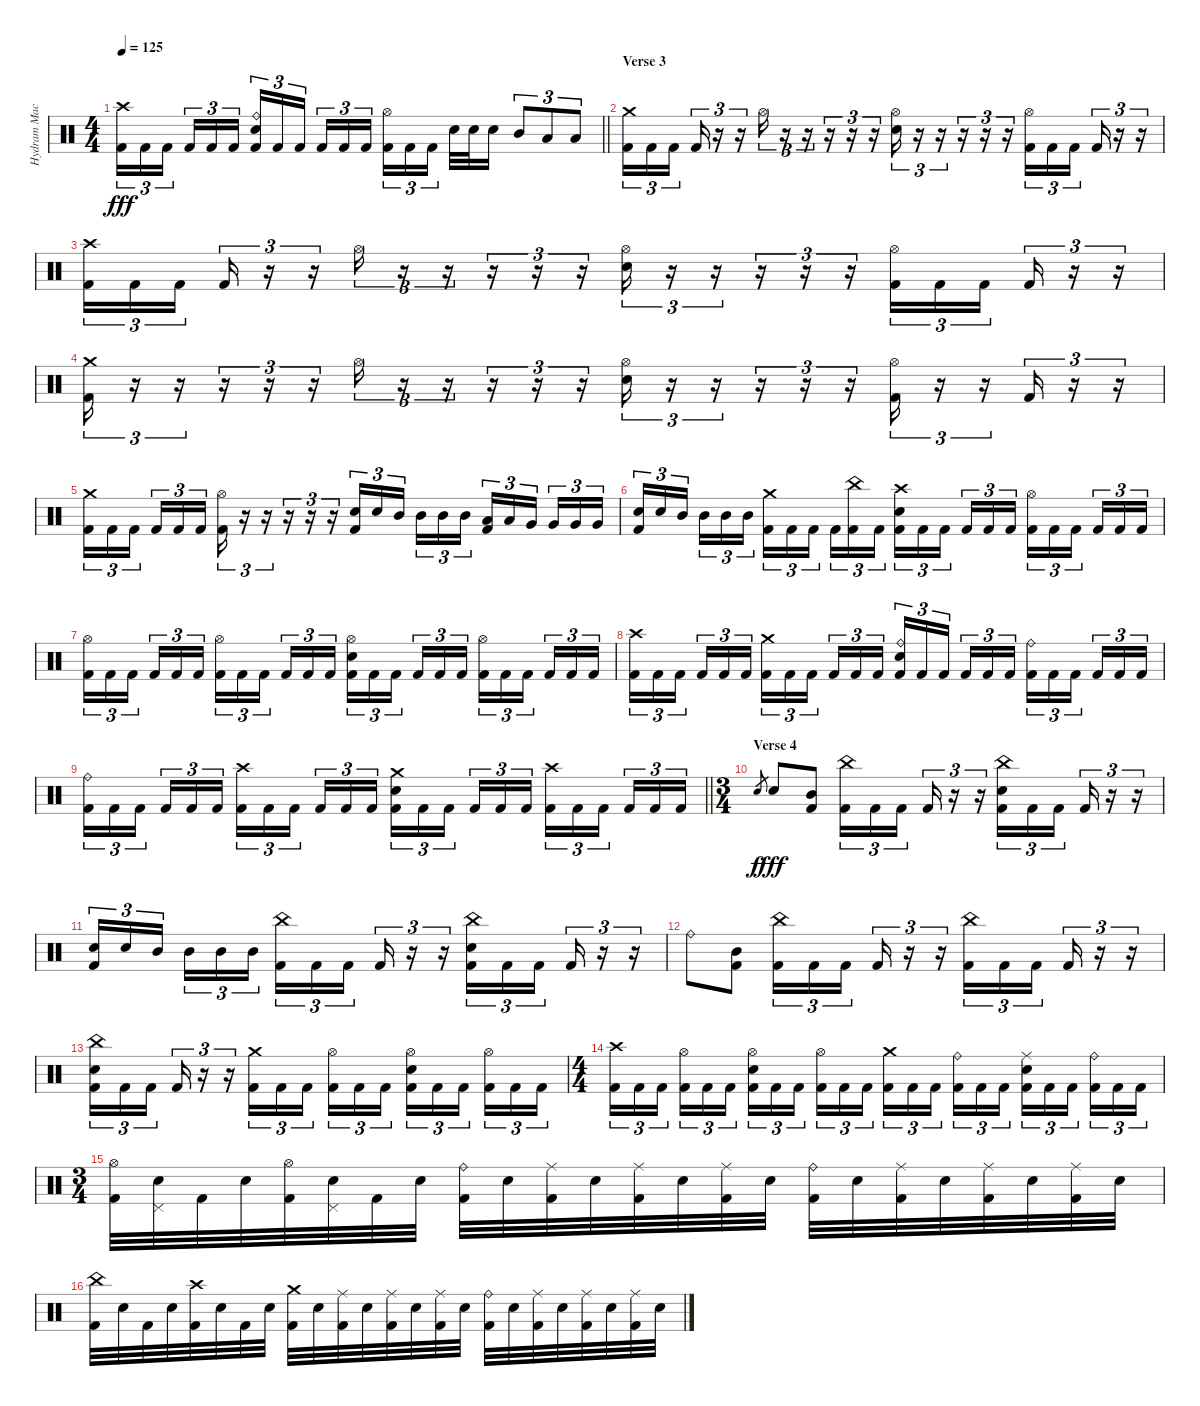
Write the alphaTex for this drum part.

\track ("Hydram Machine" "Hydram Mac") {instrument percussion}
\staff {score}
\articulation defaults
\ts (4 4)
\tempo 125
\clef neutral
\barLineRight lightlight
\ks c
("Crash high (hit)" "Kick (hit) 2").16{tu (3 2) dy fff} "Kick (hit) 2".16{tu (3 2)} "Kick (hit) 2".16{tu (3 2) beam splitsecondary} "Kick (hit) 2".16{tu (3 2)} "Kick (hit) 2".16{tu (3 2)} "Kick (hit) 2".16{tu (3 2)} ("Ride (bell)" "Electric Snare (hit)" "Kick (hit) 2").16{tu (3 2)} "Kick (hit) 2".16{tu (3 2)} "Kick (hit) 2".16{tu (3 2) beam splitsecondary} "Kick (hit) 2".16{tu (3 2)} "Kick (hit) 2".16{tu (3 2)} "Kick (hit) 2".16{tu (3 2)} ("Hi-Hat (open)" "Kick (hit) 2").16{tu (3 2)} "Kick (hit) 2".16{tu (3 2)} "Kick (hit) 2".16{tu (3 2) beam splitsecondary} "Electric Snare (hit)".32 "Electric Snare (hit)".32 "Electric Snare (hit)".16 "Mid Tom (hit)".8{tu (3 2)} "Low Tom (hit)".8{tu (3 2)} "Low Tom (hit)".8{tu (3 2)} |
\section ("" "Verse 3")
("Crash medium (hit)" "Kick (hit) 2").16{tu (3 2)} "Kick (hit) 2".16{tu (3 2)} "Kick (hit) 2".16{tu (3 2) beam splitsecondary} "Kick (hit) 2".16{tu (3 2)} r.16{tu (3 2)} r.16{tu (3 2)} "Hi-Hat (open)".16{tu (3 2)} r.16{tu (3 2)} r.16{tu (3 2)} r.16{tu (3 2)} r.16{tu (3 2)} r.16{tu (3 2)} ("Hi-Hat (open)" "Electric Snare (hit)").16{tu (3 2)} r.16{tu (3 2)} r.16{tu (3 2)} r.16{tu (3 2)} r.16{tu (3 2)} r.16{tu (3 2)} ("Hi-Hat (open)" "Kick (hit) 2").16{tu (3 2)} "Kick (hit) 2".16{tu (3 2)} "Kick (hit) 2".16{tu (3 2) beam splitsecondary} "Kick (hit) 2".16{tu (3 2)} r.16{tu (3 2)} r.16{tu (3 2)} |
("Crash high (hit)" "Kick (hit) 2").16{tu (3 2)} "Kick (hit) 2".16{tu (3 2)} "Kick (hit) 2".16{tu (3 2) beam splitsecondary} "Kick (hit) 2".16{tu (3 2)} r.16{tu (3 2)} r.16{tu (3 2)} "Hi-Hat (open)".16{tu (3 2)} r.16{tu (3 2)} r.16{tu (3 2)} r.16{tu (3 2)} r.16{tu (3 2)} r.16{tu (3 2)} ("Hi-Hat (open)" "Electric Snare (hit)").16{tu (3 2)} r.16{tu (3 2)} r.16{tu (3 2)} r.16{tu (3 2)} r.16{tu (3 2)} r.16{tu (3 2)} ("Hi-Hat (open)" "Kick (hit) 2").16{tu (3 2)} "Kick (hit) 2".16{tu (3 2)} "Kick (hit) 2".16{tu (3 2) beam splitsecondary} "Kick (hit) 2".16{tu (3 2)} r.16{tu (3 2)} r.16{tu (3 2)} |
("Crash medium (hit)" "Kick (hit) 2").16{tu (3 2)} r.16{tu (3 2)} r.16{tu (3 2)} r.16{tu (3 2)} r.16{tu (3 2)} r.16{tu (3 2)} "Hi-Hat (open)".16{tu (3 2)} r.16{tu (3 2)} r.16{tu (3 2)} r.16{tu (3 2)} r.16{tu (3 2)} r.16{tu (3 2)} ("Hi-Hat (open)" "Electric Snare (hit)").16{tu (3 2)} r.16{tu (3 2)} r.16{tu (3 2)} r.16{tu (3 2)} r.16{tu (3 2)} r.16{tu (3 2)} ("Hi-Hat (open)" "Kick (hit) 2").16{tu (3 2)} r.16{tu (3 2)} r.16{tu (3 2)} "Kick (hit) 2".16{tu (3 2)} r.16{tu (3 2)} r.16{tu (3 2)} |
("Crash medium (hit)" "Kick (hit) 2").16{tu (3 2)} "Kick (hit) 2".16{tu (3 2)} "Kick (hit) 2".16{tu (3 2) beam splitsecondary} "Kick (hit) 2".16{tu (3 2)} "Kick (hit) 2".16{tu (3 2)} "Kick (hit) 2".16{tu (3 2)} ("Hi-Hat (open)" "Kick (hit) 2").16{tu (3 2)} r.16{tu (3 2)} r.16{tu (3 2)} r.16{tu (3 2)} r.16{tu (3 2)} r.16{tu (3 2)} ("Electric Snare (hit)" "Kick (hit) 2").16{tu (3 2)} "Electric Snare (hit)".16{tu (3 2)} "Mid Tom (hit)".16{tu (3 2) beam splitsecondary} "Mid Tom (hit)".16{tu (3 2)} "Mid Tom (hit)".16{tu (3 2)} "Mid Tom (hit)".16{tu (3 2)} ("Low Tom (hit)" "Kick (hit) 2").16{tu (3 2)} "Low Tom (hit)".16{tu (3 2)} "Very Low Tom (hit)".16{tu (3 2) beam splitsecondary} "Very Low Tom (hit)".16{tu (3 2)} "Very Low Tom (hit)".16{tu (3 2)} "Very Low Tom (hit)".16{tu (3 2)} |
("Electric Snare (hit)" "Kick (hit) 2").16{tu (3 2)} "Electric Snare (hit)".16{tu (3 2)} "Mid Tom (hit)".16{tu (3 2) beam splitsecondary} "Mid Tom (hit)".16{tu (3 2)} "Mid Tom (hit)".16{tu (3 2)} "Mid Tom (hit)".16{tu (3 2)} ("Crash medium (hit)" "Kick (hit) 2").16{tu (3 2)} "Kick (hit) 2".16{tu (3 2)} "Kick (hit) 2".16{tu (3 2) beam splitsecondary} "Kick (hit) 2".16{tu (3 2)} ("China (hit)" "Kick (hit) 2").16{tu (3 2)} "Kick (hit) 2".16{tu (3 2)} ("Crash high (hit)" "Electric Snare (hit)" "Kick (hit) 2").16{tu (3 2)} "Kick (hit) 2".16{tu (3 2)} "Kick (hit) 2".16{tu (3 2) beam splitsecondary} "Kick (hit) 2".16{tu (3 2)} "Kick (hit) 2".16{tu (3 2)} "Kick (hit) 2".16{tu (3 2)} ("Hi-Hat (open)" "Kick (hit) 2").16{tu (3 2)} "Kick (hit) 2".16{tu (3 2)} "Kick (hit) 2".16{tu (3 2) beam splitsecondary} "Kick (hit) 2".16{tu (3 2)} "Kick (hit) 2".16{tu (3 2)} "Kick (hit) 2".16{tu (3 2)} |
("Hi-Hat (open)" "Kick (hit) 2").16{tu (3 2)} "Kick (hit) 2".16{tu (3 2)} "Kick (hit) 2".16{tu (3 2) beam splitsecondary} "Kick (hit) 2".16{tu (3 2)} "Kick (hit) 2".16{tu (3 2)} "Kick (hit) 2".16{tu (3 2)} ("Hi-Hat (open)" "Kick (hit) 2").16{tu (3 2)} "Kick (hit) 2".16{tu (3 2)} "Kick (hit) 2".16{tu (3 2) beam splitsecondary} "Kick (hit) 2".16{tu (3 2)} "Kick (hit) 2".16{tu (3 2)} "Kick (hit) 2".16{tu (3 2)} ("Hi-Hat (open)" "Electric Snare (hit)" "Kick (hit) 2").16{tu (3 2)} "Kick (hit) 2".16{tu (3 2)} "Kick (hit) 2".16{tu (3 2) beam splitsecondary} "Kick (hit) 2".16{tu (3 2)} "Kick (hit) 2".16{tu (3 2)} "Kick (hit) 2".16{tu (3 2)} ("Hi-Hat (open)" "Kick (hit) 2").16{tu (3 2)} "Kick (hit) 2".16{tu (3 2)} "Kick (hit) 2".16{tu (3 2) beam splitsecondary} "Kick (hit) 2".16{tu (3 2)} "Kick (hit) 2".16{tu (3 2)} "Kick (hit) 2".16{tu (3 2)} |
("Crash high (hit)" "Kick (hit) 2").16{tu (3 2)} "Kick (hit) 2".16{tu (3 2)} "Kick (hit) 2".16{tu (3 2) beam splitsecondary} "Kick (hit) 2".16{tu (3 2)} "Kick (hit) 2".16{tu (3 2)} "Kick (hit) 2".16{tu (3 2)} ("Crash medium (hit)" "Kick (hit) 2").16{tu (3 2)} "Kick (hit) 2".16{tu (3 2)} "Kick (hit) 2".16{tu (3 2) beam splitsecondary} "Kick (hit) 2".16{tu (3 2)} "Kick (hit) 2".16{tu (3 2)} "Kick (hit) 2".16{tu (3 2)} ("Ride (bell)" "Electric Snare (hit)" "Kick (hit) 2").16{tu (3 2)} "Kick (hit) 2".16{tu (3 2)} "Kick (hit) 2".16{tu (3 2) beam splitsecondary} "Kick (hit) 2".16{tu (3 2)} "Kick (hit) 2".16{tu (3 2)} "Kick (hit) 2".16{tu (3 2)} ("Ride (bell)" "Kick (hit) 2").16{tu (3 2)} "Kick (hit) 2".16{tu (3 2)} "Kick (hit) 2".16{tu (3 2) beam splitsecondary} "Kick (hit) 2".16{tu (3 2)} "Kick (hit) 2".16{tu (3 2)} "Kick (hit) 2".16{tu (3 2)} |
\barLineRight lightlight
("Ride (bell)" "Kick (hit) 2").16{tu (3 2)} "Kick (hit) 2".16{tu (3 2)} "Kick (hit) 2".16{tu (3 2) beam splitsecondary} "Kick (hit) 2".16{tu (3 2)} "Kick (hit) 2".16{tu (3 2)} "Kick (hit) 2".16{tu (3 2)} ("Crash high (hit)" "Kick (hit) 2").16{tu (3 2)} "Kick (hit) 2".16{tu (3 2)} "Kick (hit) 2".16{tu (3 2) beam splitsecondary} "Kick (hit) 2".16{tu (3 2)} "Kick (hit) 2".16{tu (3 2)} "Kick (hit) 2".16{tu (3 2)} ("Crash medium (hit)" "Electric Snare (hit)" "Kick (hit) 2").16{tu (3 2)} "Kick (hit) 2".16{tu (3 2)} "Kick (hit) 2".16{tu (3 2) beam splitsecondary} "Kick (hit) 2".16{tu (3 2)} "Kick (hit) 2".16{tu (3 2)} "Kick (hit) 2".16{tu (3 2)} ("Crash high (hit)" "Kick (hit) 2").16{tu (3 2)} "Kick (hit) 2".16{tu (3 2)} "Kick (hit) 2".16{tu (3 2) beam splitsecondary} "Kick (hit) 2".16{tu (3 2)} "Kick (hit) 2".16{tu (3 2)} "Kick (hit) 2".16{tu (3 2)} |
\ts (3 4)
\section ("" "Verse 4")
"Electric Snare (hit)".8{gr dy f} "Electric Snare (hit)".8{dy fff} ("Mid Tom (hit)" "Kick (hit) 2").8 ("China (hit)" "Kick (hit) 2").16{tu (3 2)} "Kick (hit) 2".16{tu (3 2)} "Kick (hit) 2".16{tu (3 2) beam splitsecondary} "Kick (hit) 2".16{tu (3 2)} r.16{tu (3 2)} r.16{tu (3 2)} ("China (hit)" "Electric Snare (hit)" "Kick (hit) 2").16{tu (3 2)} "Kick (hit) 2".16{tu (3 2)} "Kick (hit) 2".16{tu (3 2) beam splitsecondary} "Kick (hit) 2".16{tu (3 2)} r.16{tu (3 2)} r.16{tu (3 2)} |
("Electric Snare (hit)" "Kick (hit) 2").16{tu (3 2)} "Electric Snare (hit)".16{tu (3 2)} "Mid Tom (hit)".16{tu (3 2) beam splitsecondary} "Mid Tom (hit)".16{tu (3 2)} "Mid Tom (hit)".16{tu (3 2)} "Mid Tom (hit)".16{tu (3 2)} ("China (hit)" "Kick (hit) 2").16{tu (3 2)} "Kick (hit) 2".16{tu (3 2)} "Kick (hit) 2".16{tu (3 2) beam splitsecondary} "Kick (hit) 2".16{tu (3 2)} r.16{tu (3 2)} r.16{tu (3 2)} ("China (hit)" "Electric Snare (hit)" "Kick (hit) 2").16{tu (3 2)} "Kick (hit) 2".16{tu (3 2)} "Kick (hit) 2".16{tu (3 2) beam splitsecondary} "Kick (hit) 2".16{tu (3 2)} r.16{tu (3 2)} r.16{tu (3 2)} |
"Ride (bell)".8 ("Mid Tom (hit)" "Kick (hit) 2").8 ("China (hit)" "Kick (hit) 2").16{tu (3 2)} "Kick (hit) 2".16{tu (3 2)} "Kick (hit) 2".16{tu (3 2) beam splitsecondary} "Kick (hit) 2".16{tu (3 2)} r.16{tu (3 2)} r.16{tu (3 2)} ("China (hit)" "Kick (hit) 2").16{tu (3 2)} "Kick (hit) 2".16{tu (3 2)} "Kick (hit) 2".16{tu (3 2) beam splitsecondary} "Kick (hit) 2".16{tu (3 2)} r.16{tu (3 2)} r.16{tu (3 2)} |
("China (hit)" "Electric Snare (hit)" "Kick (hit) 2").16{tu (3 2)} "Kick (hit) 2".16{tu (3 2)} "Kick (hit) 2".16{tu (3 2) beam splitsecondary} "Kick (hit) 2".16{tu (3 2)} r.16{tu (3 2)} r.16{tu (3 2)} ("Crash medium (hit)" "Kick (hit) 2").16{tu (3 2)} "Kick (hit) 2".16{tu (3 2)} "Kick (hit) 2".16{tu (3 2) beam splitsecondary} ("Hi-Hat (open)" "Kick (hit) 2").16{tu (3 2)} "Kick (hit) 2".16{tu (3 2)} "Kick (hit) 2".16{tu (3 2)} ("Hi-Hat (open)" "Electric Snare (hit)" "Kick (hit) 2").16{tu (3 2)} "Kick (hit) 2".16{tu (3 2)} "Kick (hit) 2".16{tu (3 2) beam splitsecondary} ("Hi-Hat (open)" "Kick (hit) 2").16{tu (3 2)} "Kick (hit) 2".16{tu (3 2)} "Kick (hit) 2".16{tu (3 2)} |
\ts (4 4)
("Crash high (hit)" "Kick (hit) 2").16{tu (3 2)} "Kick (hit) 2".16{tu (3 2)} "Kick (hit) 2".16{tu (3 2) beam splitsecondary} ("Hi-Hat (open)" "Kick (hit) 2").16{tu (3 2)} "Kick (hit) 2".16{tu (3 2)} "Kick (hit) 2".16{tu (3 2)} ("Hi-Hat (open)" "Electric Snare (hit)" "Kick (hit) 2").16{tu (3 2)} "Kick (hit) 2".16{tu (3 2)} "Kick (hit) 2".16{tu (3 2) beam splitsecondary} ("Hi-Hat (open)" "Kick (hit) 2").16{tu (3 2)} "Kick (hit) 2".16{tu (3 2)} "Kick (hit) 2".16{tu (3 2)} ("Crash medium (hit)" "Kick (hit) 2").16{tu (3 2)} "Kick (hit) 2".16{tu (3 2)} "Kick (hit) 2".16{tu (3 2) beam splitsecondary} ("Ride (bell)" "Kick (hit) 2").16{tu (3 2)} "Kick (hit) 2".16{tu (3 2)} "Kick (hit) 2".16{tu (3 2)} ("Ride (middle)" "Electric Snare (hit)" "Kick (hit) 2").16{tu (3 2)} "Kick (hit) 2".16{tu (3 2)} "Kick (hit) 2".16{tu (3 2) beam splitsecondary} ("Ride (bell)" "Kick (hit) 2").16{tu (3 2)} "Kick (hit) 2".16{tu (3 2)} "Kick (hit) 2".16{tu (3 2)} |
\ts (3 4)
("Hi-Hat (open)" "Kick (hit) 2").32 ("Pedal Hi-Hat (hit)" "Electric Snare (hit)").32 "Kick (hit) 2".32 "Electric Snare (hit)".32 ("Hi-Hat (open)" "Kick (hit) 2").32 ("Pedal Hi-Hat (hit)" "Electric Snare (hit)").32 "Kick (hit) 2".32 "Electric Snare (hit)".32 ("Ride (bell)" "Kick (hit) 2").32 "Electric Snare (hit)".32 ("Ride (middle)" "Kick (hit) 2").32 "Electric Snare (hit)".32 ("Ride (middle)" "Kick (hit) 2").32 "Electric Snare (hit)".32 ("Ride (middle)" "Kick (hit) 2").32 "Electric Snare (hit)".32 ("Ride (bell)" "Kick (hit) 2").32 "Electric Snare (hit)".32 ("Ride (middle)" "Kick (hit) 2").32 "Electric Snare (hit)".32 ("Ride (middle)" "Kick (hit) 2").32 "Electric Snare (hit)".32 ("Ride (middle)" "Kick (hit) 2").32 "Electric Snare (hit)".32 |
("China (hit)" "Kick (hit) 2").32 "Electric Snare (hit)".32 "Kick (hit) 2".32 "Electric Snare (hit)".32 ("Crash high (hit)" "Kick (hit) 2").32 "Electric Snare (hit)".32 "Kick (hit) 2".32 "Electric Snare (hit)".32 ("Crash medium (hit)" "Kick (hit) 2").32 "Electric Snare (hit)".32 ("Ride (middle)" "Kick (hit) 2").32 "Electric Snare (hit)".32 ("Ride (middle)" "Kick (hit) 2").32 "Electric Snare (hit)".32 ("Ride (middle)" "Kick (hit) 2").32 "Electric Snare (hit)".32 ("Ride (bell)" "Kick (hit) 2").32 "Electric Snare (hit)".32 ("Ride (middle)" "Kick (hit) 2").32 "Electric Snare (hit)".32 ("Ride (middle)" "Kick (hit) 2").32 "Electric Snare (hit)".32 ("Ride (middle)" "Kick (hit) 2").32 "Electric Snare (hit)".32
